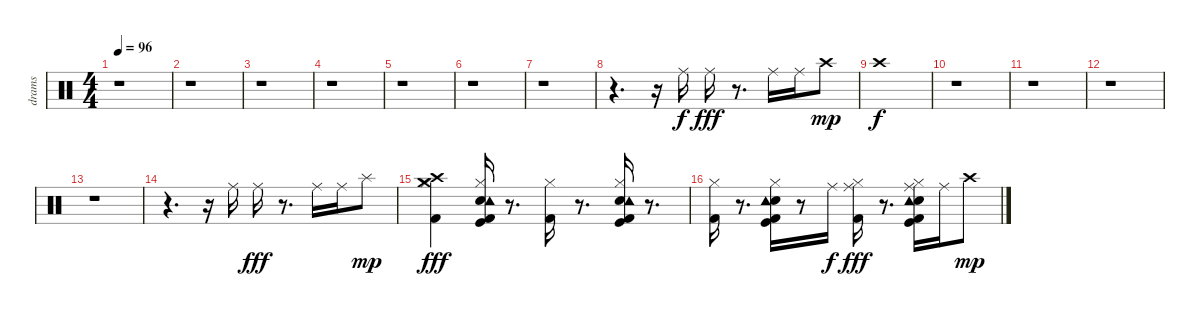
\track ("drams" "drams") {instrument percussion}
\staff {score}
\articulation defaults
\ts (4 4)
\tempo 96
\clef neutral
\ks c
r.1{dy f} |
r.1 |
r.1 |
r.1 |
r.1 |
r.1 |
r.1 |
r.4{d} r.16 "Ride (middle)".16 "Ride (middle)".16{dy fff} r.8{d} "Ride (middle)".16 "Ride (middle)".16 "Crash high (hit)".8{dy mp} |
"Crash high (hit)".1{dy f} |
r.1 |
r.1 |
r.1 |
r.1 |
r.4{d} r.16 "Ride (middle)".16 "Ride (middle)".16{dy fff} r.8{d} "Ride (middle)".16 "Ride (middle)".16 "Splash (hit)".8{dy mp} |
("Kick (hit) 2" "Hi-Hat (closed)" "Crash high (hit)" "Crash medium (hit)").4{dy fff} ("Kick (hit)" "Kick (hit) 2" "Electric Snare (hit)" "Hi-Hat (closed)" "Tambourine (hit)").16 r.8{d} ("Kick (hit) 2" "Hi-Hat (closed)").16 r.8{d} ("Kick (hit)" "Kick (hit) 2" "Electric Snare (hit)" "Hi-Hat (closed)" "Tambourine (hit)").16 r.8{d} |
("Kick (hit) 2" "Hi-Hat (closed)").16 r.8{d} ("Kick (hit)" "Kick (hit) 2" "Electric Snare (hit)" "Hi-Hat (closed)" "Tambourine (hit)").16 r.8 "Ride (middle)".16{dy f} ("Kick (hit) 2" "Hi-Hat (closed)" "Ride (middle)").16{dy fff} r.8{d} ("Kick (hit)" "Kick (hit) 2" "Electric Snare (hit)" "Hi-Hat (closed)" "Ride (middle)" "Tambourine (hit)").16 "Ride (middle)".16 "Crash high (hit)".8{dy mp}
